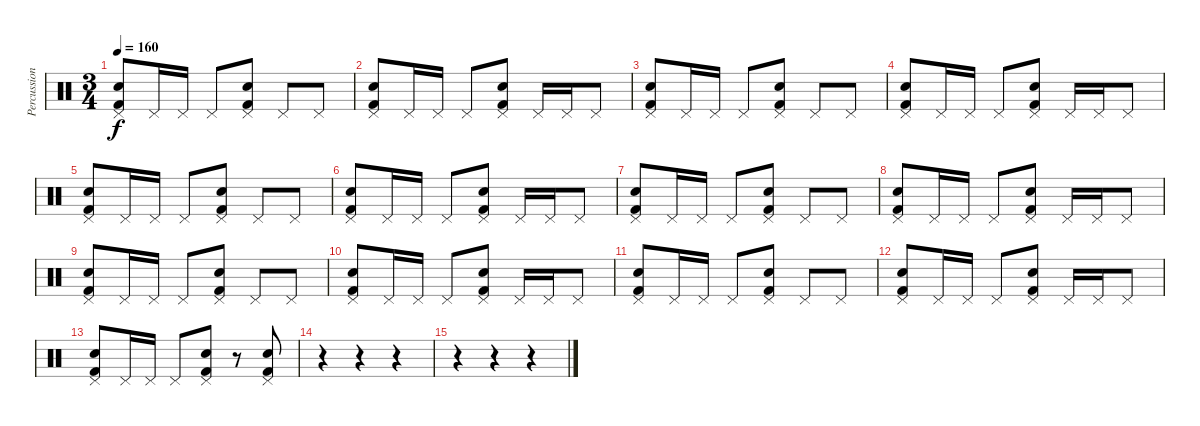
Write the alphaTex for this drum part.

\track ("Percussion" "Percussion") {instrument percussion}
\staff {score}
\articulation defaults
\ts (3 4)
\tempo 160
\clef neutral
\ks c
("Snare (hit) 2" "Kick (hit) 2" "Pedal Hi-Hat (hit)").8{dy f} "Pedal Hi-Hat (hit)".16 "Pedal Hi-Hat (hit)".16 "Pedal Hi-Hat (hit)".8 ("Electric Snare (hit)" "Kick (hit) 2" "Pedal Hi-Hat (hit)").8 "Pedal Hi-Hat (hit)".8 "Pedal Hi-Hat (hit)".8 |
("Snare (hit) 2" "Kick (hit) 2" "Pedal Hi-Hat (hit)").8 "Pedal Hi-Hat (hit)".16 "Pedal Hi-Hat (hit)".16 "Pedal Hi-Hat (hit)".8 ("Electric Snare (hit)" "Kick (hit) 2" "Pedal Hi-Hat (hit)").8 "Pedal Hi-Hat (hit)".16 "Pedal Hi-Hat (hit)".16 "Pedal Hi-Hat (hit)".8 |
("Snare (hit) 2" "Kick (hit) 2" "Pedal Hi-Hat (hit)").8 "Pedal Hi-Hat (hit)".16 "Pedal Hi-Hat (hit)".16 "Pedal Hi-Hat (hit)".8 ("Electric Snare (hit)" "Kick (hit) 2" "Pedal Hi-Hat (hit)").8 "Pedal Hi-Hat (hit)".8 "Pedal Hi-Hat (hit)".8 |
("Snare (hit) 2" "Kick (hit) 2" "Pedal Hi-Hat (hit)").8 "Pedal Hi-Hat (hit)".16 "Pedal Hi-Hat (hit)".16 "Pedal Hi-Hat (hit)".8 ("Electric Snare (hit)" "Kick (hit) 2" "Pedal Hi-Hat (hit)").8 "Pedal Hi-Hat (hit)".16 "Pedal Hi-Hat (hit)".16 "Pedal Hi-Hat (hit)".8 |
("Snare (hit) 2" "Kick (hit) 2" "Pedal Hi-Hat (hit)").8 "Pedal Hi-Hat (hit)".16 "Pedal Hi-Hat (hit)".16 "Pedal Hi-Hat (hit)".8 ("Electric Snare (hit)" "Kick (hit) 2" "Pedal Hi-Hat (hit)").8 "Pedal Hi-Hat (hit)".8 "Pedal Hi-Hat (hit)".8 |
("Snare (hit) 2" "Kick (hit) 2" "Pedal Hi-Hat (hit)").8 "Pedal Hi-Hat (hit)".16 "Pedal Hi-Hat (hit)".16 "Pedal Hi-Hat (hit)".8 ("Electric Snare (hit)" "Kick (hit) 2" "Pedal Hi-Hat (hit)").8 "Pedal Hi-Hat (hit)".16 "Pedal Hi-Hat (hit)".16 "Pedal Hi-Hat (hit)".8 |
("Snare (hit) 2" "Kick (hit) 2" "Pedal Hi-Hat (hit)").8 "Pedal Hi-Hat (hit)".16 "Pedal Hi-Hat (hit)".16 "Pedal Hi-Hat (hit)".8 ("Electric Snare (hit)" "Kick (hit) 2" "Pedal Hi-Hat (hit)").8 "Pedal Hi-Hat (hit)".8 "Pedal Hi-Hat (hit)".8 |
("Snare (hit) 2" "Kick (hit) 2" "Pedal Hi-Hat (hit)").8 "Pedal Hi-Hat (hit)".16 "Pedal Hi-Hat (hit)".16 "Pedal Hi-Hat (hit)".8 ("Electric Snare (hit)" "Kick (hit) 2" "Pedal Hi-Hat (hit)").8 "Pedal Hi-Hat (hit)".16 "Pedal Hi-Hat (hit)".16 "Pedal Hi-Hat (hit)".8 |
("Snare (hit) 2" "Kick (hit) 2" "Pedal Hi-Hat (hit)").8 "Pedal Hi-Hat (hit)".16 "Pedal Hi-Hat (hit)".16 "Pedal Hi-Hat (hit)".8 ("Electric Snare (hit)" "Kick (hit) 2" "Pedal Hi-Hat (hit)").8 "Pedal Hi-Hat (hit)".8 "Pedal Hi-Hat (hit)".8 |
("Snare (hit) 2" "Kick (hit) 2" "Pedal Hi-Hat (hit)").8 "Pedal Hi-Hat (hit)".16 "Pedal Hi-Hat (hit)".16 "Pedal Hi-Hat (hit)".8 ("Electric Snare (hit)" "Kick (hit) 2" "Pedal Hi-Hat (hit)").8 "Pedal Hi-Hat (hit)".16 "Pedal Hi-Hat (hit)".16 "Pedal Hi-Hat (hit)".8 |
("Snare (hit) 2" "Kick (hit) 2" "Pedal Hi-Hat (hit)").8 "Pedal Hi-Hat (hit)".16 "Pedal Hi-Hat (hit)".16 "Pedal Hi-Hat (hit)".8 ("Electric Snare (hit)" "Kick (hit) 2" "Pedal Hi-Hat (hit)").8 "Pedal Hi-Hat (hit)".8 "Pedal Hi-Hat (hit)".8 |
("Snare (hit) 2" "Kick (hit) 2" "Pedal Hi-Hat (hit)").8 "Pedal Hi-Hat (hit)".16 "Pedal Hi-Hat (hit)".16 "Pedal Hi-Hat (hit)".8 ("Electric Snare (hit)" "Kick (hit) 2" "Pedal Hi-Hat (hit)").8 "Pedal Hi-Hat (hit)".16 "Pedal Hi-Hat (hit)".16 "Pedal Hi-Hat (hit)".8 |
("Snare (hit) 2" "Kick (hit) 2" "Pedal Hi-Hat (hit)").8 "Pedal Hi-Hat (hit)".16 "Pedal Hi-Hat (hit)".16 "Pedal Hi-Hat (hit)".8 ("Electric Snare (hit)" "Kick (hit) 2" "Pedal Hi-Hat (hit)").8 r.8 ("Electric Snare (hit)" "Kick (hit) 2" "Pedal Hi-Hat (hit)").8 |
r.4 r.4 r.4 |
r.4 r.4 r.4
